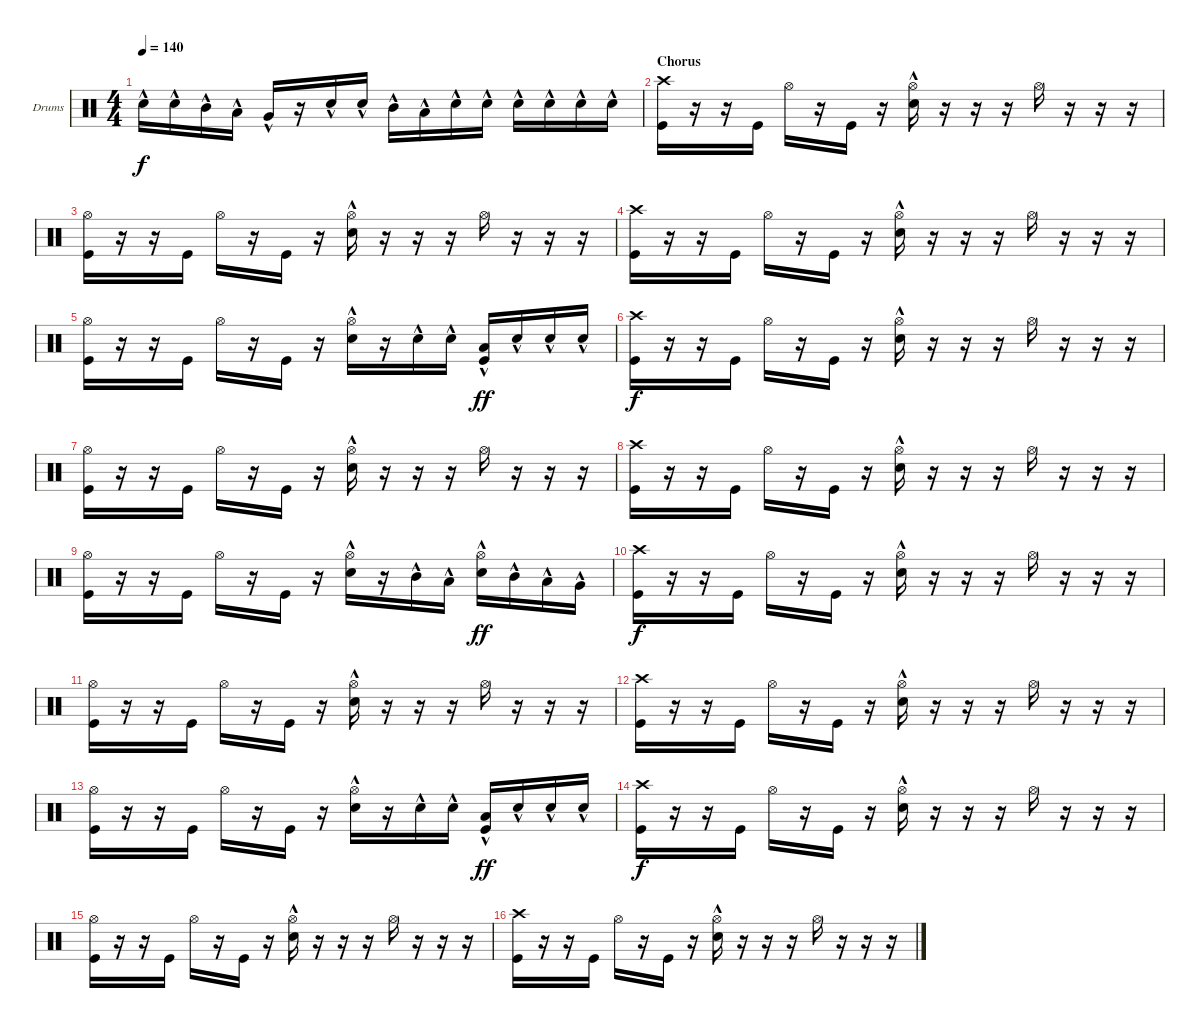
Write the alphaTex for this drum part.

\defaultSystemsLayout 4
\bracketExtendMode groupsimilarinstruments
\firstSystemTrackNameOrientation horizontal
\otherSystemsTrackNameOrientation horizontal
\track ("Drumkit - Paul" "Drums") {instrument percussion}
\staff {score}
\articulation defaults
\ts (4 4)
\tempo 140
\clef neutral
\ks c "Snare (hit) 2"{hac}.16{dy f} "Snare (hit) 2"{hac}.16 "Mid Tom (hit)"{hac}.16 "Low Tom (hit)"{hac}.16 "Very Low Tom (hit)"{hac}.16
r.16 "Snare (hit) 2"{hac}.16 "Snare (hit) 2"{hac}.16 "Mid Tom (hit)"{hac}.16 "Low Tom (hit)"{hac}.16 "Snare (hit) 2"{hac}.16 "Snare (hit) 2"{hac}.16 "Snare (hit) 2"{hac}.16 "Snare (hit) 2"{hac}.16 "Snare (hit) 2"{hac}.16 "Snare (hit) 2"{hac}.16 |
\section ("" "Chorus")
("Crash high (hit)" "Kick (hit)").16 r.16 r.16 "Kick (hit)".16 "Hi-Hat (open)".16 r.16 "Kick (hit)".16 r.16 ("Snare (hit) 2"{hac} "Hi-Hat (open)").16 r.16 r.16 r.16 "Hi-Hat (open)".16 r.16 r.16 r.16 |
("Kick (hit)" "Hi-Hat (open)").16 r.16 r.16 "Kick (hit)".16 "Hi-Hat (open)".16 r.16 "Kick (hit)".16 r.16 ("Snare (hit) 2"{hac} "Hi-Hat (open)").16 r.16 r.16 r.16 "Hi-Hat (open)".16 r.16 r.16 r.16 |
("Crash high (hit)" "Kick (hit)").16 r.16 r.16 "Kick (hit)".16 "Hi-Hat (open)".16 r.16 "Kick (hit)".16 r.16 ("Snare (hit) 2"{hac} "Hi-Hat (open)").16 r.16 r.16 r.16 "Hi-Hat (open)".16 r.16 r.16 r.16 |
("Kick (hit)" "Hi-Hat (open)").16 r.16 r.16 "Kick (hit)".16 "Hi-Hat (open)".16 r.16 "Kick (hit)".16 r.16 ("Snare (hit) 2"{hac} "Hi-Hat (open)").16 r.16 "Snare (hit) 2"{hac}.16 "Snare (hit) 2"{hac}.16 ("Kick (hit)"{hac} "Low Tom (hit)"{hac}).16{dy ff} "Snare (hit) 2"{hac}.16 "Snare (hit) 2"{hac}.16 "Snare (hit) 2"{hac}.16 |
("Crash high (hit)" "Kick (hit)").16{dy f} r.16 r.16 "Kick (hit)".16 "Hi-Hat (open)".16 r.16 "Kick (hit)".16 r.16 ("Snare (hit) 2"{hac} "Hi-Hat (open)").16 r.16 r.16 r.16 "Hi-Hat (open)".16 r.16 r.16 r.16 |
("Kick (hit)" "Hi-Hat (open)").16 r.16 r.16 "Kick (hit)".16 "Hi-Hat (open)".16 r.16 "Kick (hit)".16 r.16 ("Snare (hit) 2"{hac} "Hi-Hat (open)").16 r.16 r.16 r.16 "Hi-Hat (open)".16 r.16 r.16 r.16 |
("Crash high (hit)" "Kick (hit)").16 r.16 r.16 "Kick (hit)".16 "Hi-Hat (open)".16 r.16 "Kick (hit)".16 r.16 ("Snare (hit) 2"{hac} "Hi-Hat (open)").16 r.16 r.16 r.16 "Hi-Hat (open)".16 r.16 r.16 r.16 |
("Kick (hit)" "Hi-Hat (open)").16 r.16 r.16 "Kick (hit)".16 "Hi-Hat (open)".16 r.16 "Kick (hit)".16 r.16 ("Snare (hit) 2"{hac} "Hi-Hat (open)").16 r.16 "Mid Tom (hit)"{hac}.16 "Low Tom (hit)"{hac}.16 ("Snare (hit) 2"{hac} "Hi-Hat (open)").16{dy ff} "Mid Tom (hit)"{hac}.16 "Low Tom (hit)"{hac}.16 "Very Low Tom (hit)"{hac}.16 |
("Crash high (hit)" "Kick (hit)").16{dy f} r.16 r.16 "Kick (hit)".16 "Hi-Hat (open)".16 r.16 "Kick (hit)".16 r.16 ("Snare (hit) 2"{hac} "Hi-Hat (open)").16 r.16 r.16 r.16 "Hi-Hat (open)".16 r.16 r.16 r.16 |
("Kick (hit)" "Hi-Hat (open)").16 r.16 r.16 "Kick (hit)".16 "Hi-Hat (open)".16 r.16 "Kick (hit)".16 r.16 ("Snare (hit) 2"{hac} "Hi-Hat (open)").16 r.16 r.16 r.16 "Hi-Hat (open)".16 r.16 r.16 r.16 |
("Crash high (hit)" "Kick (hit)").16 r.16 r.16 "Kick (hit)".16 "Hi-Hat (open)".16 r.16 "Kick (hit)".16 r.16 ("Snare (hit) 2"{hac} "Hi-Hat (open)").16 r.16 r.16 r.16 "Hi-Hat (open)".16 r.16 r.16 r.16 |
("Kick (hit)" "Hi-Hat (open)").16 r.16 r.16 "Kick (hit)".16 "Hi-Hat (open)".16 r.16 "Kick (hit)".16 r.16 ("Snare (hit) 2"{hac} "Hi-Hat (open)").16 r.16 "Snare (hit) 2"{hac}.16 "Snare (hit) 2"{hac}.16 ("Kick (hit)"{hac} "Low Tom (hit)"{hac}).16{dy ff} "Snare (hit) 2"{hac}.16 "Snare (hit) 2"{hac}.16 "Snare (hit) 2"{hac}.16 |
("Crash high (hit)" "Kick (hit)").16{dy f} r.16 r.16 "Kick (hit)".16 "Hi-Hat (open)".16 r.16 "Kick (hit)".16 r.16 ("Snare (hit) 2"{hac} "Hi-Hat (open)").16 r.16 r.16 r.16 "Hi-Hat (open)".16 r.16 r.16 r.16 |
("Kick (hit)" "Hi-Hat (open)").16 r.16 r.16 "Kick (hit)".16 "Hi-Hat (open)".16 r.16 "Kick (hit)".16 r.16 ("Snare (hit) 2"{hac} "Hi-Hat (open)").16 r.16 r.16 r.16 "Hi-Hat (open)".16 r.16 r.16 r.16 |
("Crash high (hit)" "Kick (hit)").16 r.16 r.16 "Kick (hit)".16 "Hi-Hat (open)".16 r.16 "Kick (hit)".16 r.16 ("Snare (hit) 2"{hac} "Hi-Hat (open)").16 r.16 r.16 r.16 "Hi-Hat (open)".16 r.16 r.16 r.16
